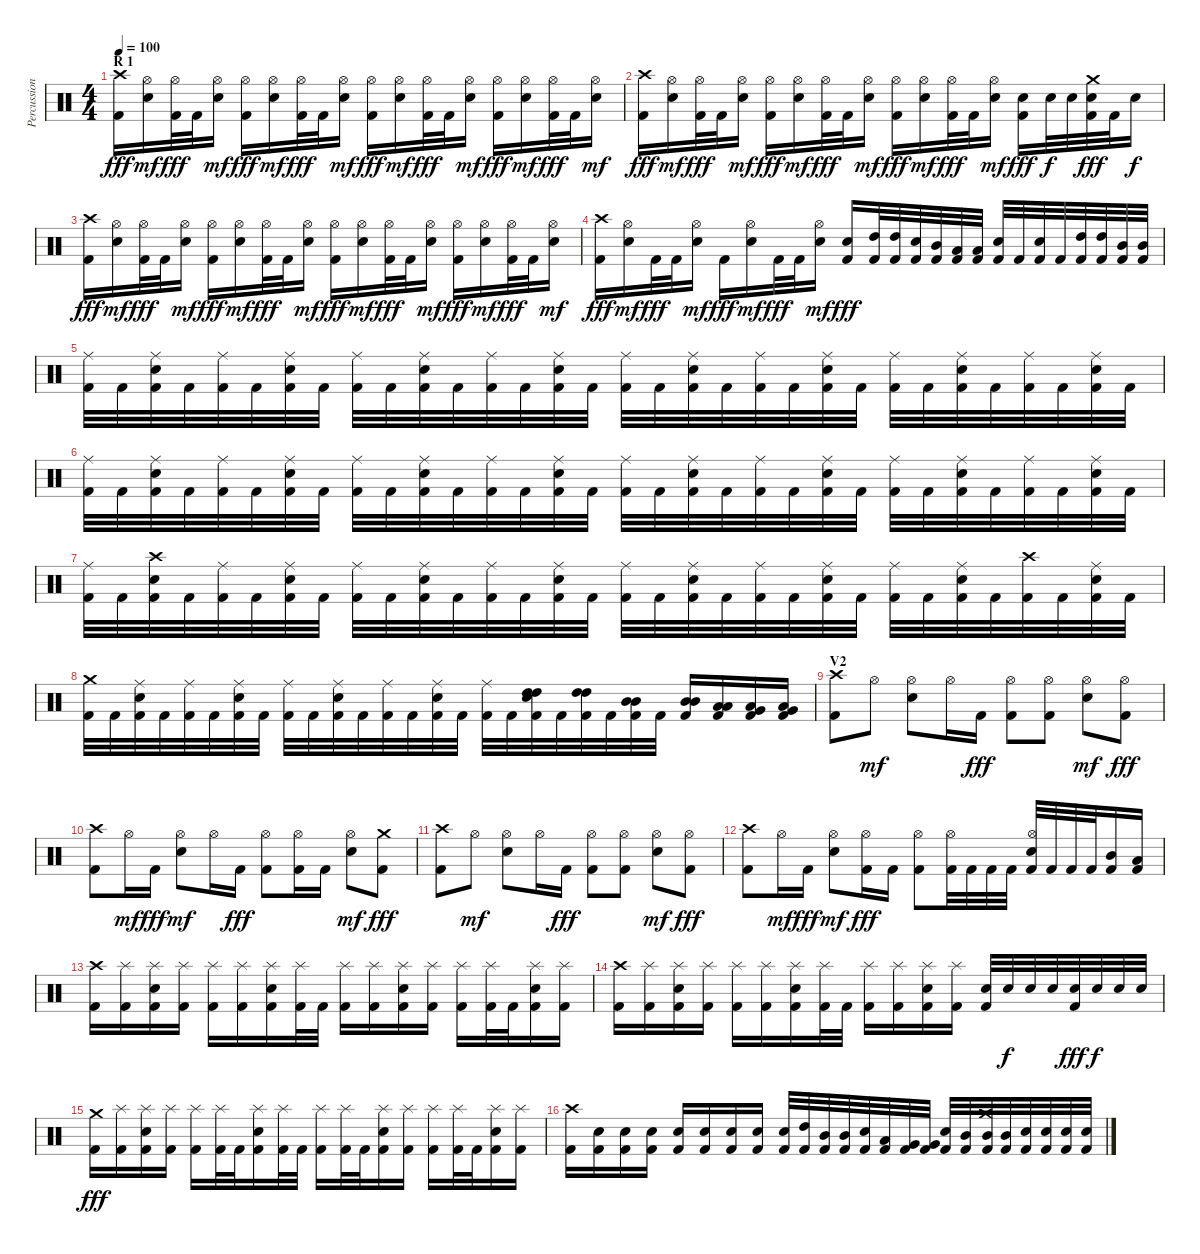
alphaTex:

\track ("Percussion" "Percussion") {instrument percussion}
\staff {score}
\articulation defaults
\ts (4 4)
\section ("" "R 1")
\tempo 100
\clef neutral
\ks c
("Crash high (hit)" "Kick (hit) 2").16{dy fff} ("Hi-Hat (open)" "Snare (hit) 2").16{dy mf} ("Hi-Hat (open)" "Kick (hit) 2").32{dy fff} "Kick (hit) 2".32 ("Hi-Hat (open)" "Snare (hit) 2").16{dy mf} ("Hi-Hat (open)" "Kick (hit) 2").16{dy fff} ("Hi-Hat (open)" "Snare (hit) 2").16{dy mf} ("Hi-Hat (open)" "Kick (hit) 2").32{dy fff} "Kick (hit) 2".32 ("Hi-Hat (open)" "Snare (hit) 2").16{dy mf} ("Hi-Hat (open)" "Kick (hit) 2").16{dy fff} ("Hi-Hat (open)" "Snare (hit) 2").16{dy mf} ("Hi-Hat (open)" "Kick (hit) 2").32{dy fff} "Kick (hit) 2".32 ("Hi-Hat (open)" "Snare (hit) 2").16{dy mf} ("Hi-Hat (open)" "Kick (hit) 2").16{dy fff} ("Hi-Hat (open)" "Snare (hit) 2").16{dy mf} ("Hi-Hat (open)" "Kick (hit) 2").32{dy fff} "Kick (hit) 2".32 ("Hi-Hat (open)" "Snare (hit) 2").16{dy mf} |
("Crash high (hit)" "Kick (hit) 2").16{dy fff} ("Hi-Hat (open)" "Snare (hit) 2").16{dy mf} ("Hi-Hat (open)" "Kick (hit) 2").32{dy fff} "Kick (hit) 2".32 ("Hi-Hat (open)" "Snare (hit) 2").16{dy mf} ("Hi-Hat (open)" "Kick (hit) 2").16{dy fff} ("Hi-Hat (open)" "Snare (hit) 2").16{dy mf} ("Hi-Hat (open)" "Kick (hit) 2").32{dy fff} "Kick (hit) 2".32 ("Hi-Hat (open)" "Snare (hit) 2").16{dy mf} ("Hi-Hat (open)" "Kick (hit) 2").16{dy fff} ("Hi-Hat (open)" "Snare (hit) 2").16{dy mf} ("Hi-Hat (open)" "Kick (hit) 2").32{dy fff} "Kick (hit) 2".32 ("Hi-Hat (open)" "Snare (hit) 2").16{dy mf} ("Snare (hit) 2" "Kick (hit) 2").16{dy fff} "Snare (hit) 2".32{dy f} "Snare (hit) 2".32 ("Crash medium (hit)" "Snare (hit) 2" "Kick (hit) 2").32{dy fff} "Kick (hit) 2".32 "Snare (hit) 2".16{dy f} |
("Crash high (hit)" "Kick (hit) 2").16{dy fff} ("Hi-Hat (open)" "Snare (hit) 2").16{dy mf} ("Hi-Hat (open)" "Kick (hit) 2").32{dy fff} "Kick (hit) 2".32 ("Hi-Hat (open)" "Snare (hit) 2").16{dy mf} ("Hi-Hat (open)" "Kick (hit) 2").16{dy fff} ("Hi-Hat (open)" "Snare (hit) 2").16{dy mf} ("Hi-Hat (open)" "Kick (hit) 2").32{dy fff} "Kick (hit) 2".32 ("Hi-Hat (open)" "Snare (hit) 2").16{dy mf} ("Hi-Hat (open)" "Kick (hit) 2").16{dy fff} ("Hi-Hat (open)" "Snare (hit) 2").16{dy mf} ("Hi-Hat (open)" "Kick (hit) 2").32{dy fff} "Kick (hit) 2".32 ("Hi-Hat (open)" "Snare (hit) 2").16{dy mf} ("Hi-Hat (open)" "Kick (hit) 2").16{dy fff} ("Hi-Hat (open)" "Snare (hit) 2").16{dy mf} ("Hi-Hat (open)" "Kick (hit) 2").32{dy fff} "Kick (hit) 2".32 ("Hi-Hat (open)" "Snare (hit) 2").16{dy mf} |
("Crash high (hit)" "Kick (hit) 2").16{dy fff} ("Hi-Hat (open)" "Snare (hit) 2").16{dy mf} "Kick (hit) 2".32{dy fff} "Kick (hit) 2".32 ("Hi-Hat (open)" "Snare (hit) 2").16{dy mf} "Kick (hit) 2".16{dy fff} ("Hi-Hat (open)" "Snare (hit) 2").16{dy mf} "Kick (hit) 2".32{dy fff} "Kick (hit) 2".32 ("Hi-Hat (open)" "Snare (hit) 2").16{dy mf} ("Snare (hit) 2" "Kick (hit) 2").16{dy fff} ("High Tom (hit)" "Kick (hit) 2").32 ("High Tom (hit)" "Kick (hit) 2").32 ("Snare (hit) 2" "Kick (hit) 2").32 ("Mid Tom (hit)" "Kick (hit) 2").32 ("Low Tom (hit)" "Kick (hit) 2").32 ("Low Tom (hit)" "Kick (hit) 2").32 ("Snare (hit) 2" "Kick (hit) 2").32 "Kick (hit) 2".32 ("Snare (hit) 2" "Kick (hit) 2").32 "Kick (hit) 2".32 ("High Tom (hit)" "Kick (hit) 2").32 ("High Tom (hit)" "Kick (hit) 2").32 ("Mid Tom (hit)" "Kick (hit) 2").32 ("Mid Tom (hit)" "Kick (hit) 2").32 |
("Ride (middle)" "Kick (hit) 2").32 "Kick (hit) 2".32 ("Ride (middle)" "Snare (hit) 2" "Kick (hit) 2").32 "Kick (hit) 2".32 ("Ride (middle)" "Kick (hit) 2").32 "Kick (hit) 2".32 ("Ride (middle)" "Snare (hit) 2" "Kick (hit) 2").32 "Kick (hit) 2".32 ("Ride (middle)" "Kick (hit) 2").32 "Kick (hit) 2".32 ("Ride (middle)" "Snare (hit) 2" "Kick (hit) 2").32 "Kick (hit) 2".32 ("Ride (middle)" "Kick (hit) 2").32 "Kick (hit) 2".32 ("Ride (middle)" "Snare (hit) 2" "Kick (hit) 2").32 "Kick (hit) 2".32 ("Ride (middle)" "Kick (hit) 2").32 "Kick (hit) 2".32 ("Ride (middle)" "Snare (hit) 2" "Kick (hit) 2").32 "Kick (hit) 2".32 ("Ride (middle)" "Kick (hit) 2").32 "Kick (hit) 2".32 ("Ride (middle)" "Snare (hit) 2" "Kick (hit) 2").32 "Kick (hit) 2".32 ("Ride (middle)" "Kick (hit) 2").32 "Kick (hit) 2".32 ("Ride (middle)" "Snare (hit) 2" "Kick (hit) 2").32 "Kick (hit) 2".32 ("Ride (middle)" "Kick (hit) 2").32 "Kick (hit) 2".32 ("Ride (middle)" "Snare (hit) 2" "Kick (hit) 2").32 "Kick (hit) 2".32 |
("Ride (middle)" "Kick (hit) 2").32 "Kick (hit) 2".32 ("Ride (middle)" "Snare (hit) 2" "Kick (hit) 2").32 "Kick (hit) 2".32 ("Ride (middle)" "Kick (hit) 2").32 "Kick (hit) 2".32 ("Ride (middle)" "Snare (hit) 2" "Kick (hit) 2").32 "Kick (hit) 2".32 ("Ride (middle)" "Kick (hit) 2").32 "Kick (hit) 2".32 ("Ride (middle)" "Snare (hit) 2" "Kick (hit) 2").32 "Kick (hit) 2".32 ("Ride (middle)" "Kick (hit) 2").32 "Kick (hit) 2".32 ("Ride (middle)" "Snare (hit) 2" "Kick (hit) 2").32 "Kick (hit) 2".32 ("Ride (middle)" "Kick (hit) 2").32 "Kick (hit) 2".32 ("Ride (middle)" "Snare (hit) 2" "Kick (hit) 2").32 "Kick (hit) 2".32 ("Ride (middle)" "Kick (hit) 2").32 "Kick (hit) 2".32 ("Ride (middle)" "Snare (hit) 2" "Kick (hit) 2").32 "Kick (hit) 2".32 ("Ride (middle)" "Kick (hit) 2").32 "Kick (hit) 2".32 ("Ride (middle)" "Snare (hit) 2" "Kick (hit) 2").32 "Kick (hit) 2".32 ("Ride (middle)" "Kick (hit) 2").32 "Kick (hit) 2".32 ("Ride (middle)" "Snare (hit) 2" "Kick (hit) 2").32 "Kick (hit) 2".32 |
("Ride (middle)" "Kick (hit) 2").32 "Kick (hit) 2".32 ("Crash high (hit)" "Snare (hit) 2" "Kick (hit) 2").32 "Kick (hit) 2".32 ("Ride (middle)" "Kick (hit) 2").32 "Kick (hit) 2".32 ("Ride (middle)" "Snare (hit) 2" "Kick (hit) 2").32 "Kick (hit) 2".32 ("Ride (middle)" "Kick (hit) 2").32 "Kick (hit) 2".32 ("Ride (middle)" "Snare (hit) 2" "Kick (hit) 2").32 "Kick (hit) 2".32 ("Ride (middle)" "Kick (hit) 2").32 "Kick (hit) 2".32 ("Ride (middle)" "Snare (hit) 2" "Kick (hit) 2").32 "Kick (hit) 2".32 ("Ride (middle)" "Kick (hit) 2").32 "Kick (hit) 2".32 ("Ride (middle)" "Snare (hit) 2" "Kick (hit) 2").32 "Kick (hit) 2".32 ("Ride (middle)" "Kick (hit) 2").32 "Kick (hit) 2".32 ("Ride (middle)" "Snare (hit) 2" "Kick (hit) 2").32 "Kick (hit) 2".32 ("Ride (middle)" "Kick (hit) 2").32 "Kick (hit) 2".32 ("Ride (middle)" "Snare (hit) 2" "Kick (hit) 2").32 "Kick (hit) 2".32 ("Crash high (hit)" "Kick (hit) 2").32 "Kick (hit) 2".32 ("Ride (middle)" "Snare (hit) 2" "Kick (hit) 2").32 "Kick (hit) 2".32 |
("Crash medium (hit)" "Kick (hit) 2").32 "Kick (hit) 2".32 ("Ride (middle)" "Snare (hit) 2" "Kick (hit) 2").32 "Kick (hit) 2".32 ("Ride (middle)" "Kick (hit) 2").32 "Kick (hit) 2".32 ("Ride (middle)" "Snare (hit) 2" "Kick (hit) 2").32 "Kick (hit) 2".32 ("Ride (middle)" "Kick (hit) 2").32 "Kick (hit) 2".32 ("Ride (middle)" "Snare (hit) 2" "Kick (hit) 2").32 "Kick (hit) 2".32 ("Ride (middle)" "Kick (hit) 2").32 "Kick (hit) 2".32 ("Ride (middle)" "Snare (hit) 2" "Kick (hit) 2").32 "Kick (hit) 2".32 ("Ride (middle)" "Kick (hit) 2").32 "Kick (hit) 2".32 ("High Tom (hit)" "High Tom (hit)" "Snare (hit) 2" "Kick (hit) 2").32 "Kick (hit) 2".32 ("High Tom (hit)" "High Tom (hit)" "Kick (hit) 2").32 "Kick (hit) 2".32 ("Mid Tom (hit)" "Mid Tom (hit)" "Kick (hit) 2").32 "Kick (hit) 2".32 ("Mid Tom (hit)" "Mid Tom (hit)" "Kick (hit) 2").16 ("Low Tom (hit)" "Low Tom (hit)" "Kick (hit) 2").16 ("Low Tom (hit)" "Very Low Tom (hit)" "Kick (hit) 2").16 ("Low Tom (hit)" "Very Low Tom (hit)" "Kick (hit) 2").16 |
\section ("" "V2")
("Crash high (hit)" "Kick (hit) 2").8 "Hi-Hat (open)".8{dy mf} ("Hi-Hat (open)" "Snare (hit) 2").8 "Hi-Hat (open)".16 "Kick (hit) 2".16{dy fff} ("Hi-Hat (open)" "Kick (hit) 2").8 ("Hi-Hat (open)" "Kick (hit) 2").8 ("Hi-Hat (open)" "Snare (hit) 2").8{dy mf} ("Hi-Hat (open)" "Kick (hit) 2").8{dy fff} |
("Crash high (hit)" "Kick (hit) 2").8 "Hi-Hat (open)".16{dy mf} "Kick (hit) 2".16{dy fff} ("Hi-Hat (open)" "Snare (hit) 2").8{dy mf} "Hi-Hat (open)".16 "Kick (hit) 2".16{dy fff} ("Hi-Hat (open)" "Kick (hit) 2").8 ("Hi-Hat (open)" "Kick (hit) 2").16 "Kick (hit) 2".16 ("Hi-Hat (open)" "Snare (hit) 2").8{dy mf} ("Crash medium (hit)" "Kick (hit) 2").8{dy fff} |
("Crash high (hit)" "Kick (hit) 2").8 "Hi-Hat (open)".8{dy mf} ("Hi-Hat (open)" "Snare (hit) 2").8 "Hi-Hat (open)".16 "Kick (hit) 2".16{dy fff} ("Hi-Hat (open)" "Kick (hit) 2").8 ("Hi-Hat (open)" "Kick (hit) 2").8 ("Hi-Hat (open)" "Snare (hit) 2").8{dy mf} ("Hi-Hat (open)" "Kick (hit) 2").8{dy fff} |
("Crash high (hit)" "Kick (hit) 2").8 "Hi-Hat (open)".16{dy mf} "Kick (hit) 2".16{dy fff} ("Hi-Hat (open)" "Snare (hit) 2").8{dy mf} ("Hi-Hat (open)" "Kick (hit) 2").16{dy fff} "Kick (hit) 2".16 ("Hi-Hat (open)" "Kick (hit) 2").8 ("Hi-Hat (open)" "Kick (hit) 2").32 "Kick (hit) 2".32 "Kick (hit) 2".32 "Kick (hit) 2".32 ("Hi-Hat (open)" "Snare (hit) 2" "Kick (hit) 2").32 "Kick (hit) 2".32 "Kick (hit) 2".32 "Kick (hit) 2".32 ("Mid Tom (hit)" "Kick (hit) 2").16 ("Low Tom (hit)" "Kick (hit) 2").16 |
("Crash high (hit)" "Kick (hit) 2").16 ("Splash (hit)" "Kick (hit) 2").16 ("Splash (hit)" "Snare (hit) 2" "Kick (hit) 2").16 ("Splash (hit)" "Kick (hit) 2").16 ("Splash (hit)" "Kick (hit) 2").16 ("Splash (hit)" "Kick (hit) 2").16 ("Splash (hit)" "Snare (hit) 2" "Kick (hit) 2").16 ("Splash (hit)" "Kick (hit) 2").32 "Kick (hit) 2".32 ("Splash (hit)" "Kick (hit) 2").16 ("Splash (hit)" "Kick (hit) 2").16 ("Splash (hit)" "Snare (hit) 2" "Kick (hit) 2").16 ("Splash (hit)" "Kick (hit) 2").16 ("Splash (hit)" "Kick (hit) 2").16 ("Splash (hit)" "Kick (hit) 2").32 "Kick (hit) 2".32 ("Splash (hit)" "Snare (hit) 2" "Kick (hit) 2").16 ("Splash (hit)" "Kick (hit) 2").16 |
("Crash high (hit)" "Kick (hit) 2").16 ("Splash (hit)" "Kick (hit) 2").16 ("Splash (hit)" "Snare (hit) 2" "Kick (hit) 2").16 ("Splash (hit)" "Kick (hit) 2").16 ("Splash (hit)" "Kick (hit) 2").16 ("Splash (hit)" "Kick (hit) 2").16 ("Splash (hit)" "Snare (hit) 2" "Kick (hit) 2").16 ("Splash (hit)" "Kick (hit) 2").32 "Kick (hit) 2".32 ("Splash (hit)" "Kick (hit) 2").16 ("Splash (hit)" "Kick (hit) 2").16 ("Splash (hit)" "Snare (hit) 2" "Kick (hit) 2").16 ("Splash (hit)" "Kick (hit) 2").16 ("Snare (hit) 2" "Kick (hit) 2").32 "Snare (hit) 2".32{dy f} "Snare (hit) 2".32 "Snare (hit) 2".32 ("Snare (hit) 2" "Kick (hit) 2").32{dy fff} "Snare (hit) 2".32{dy f} "Snare (hit) 2".32 "Snare (hit) 2".32 |
("Crash medium (hit)" "Kick (hit) 2").16{dy fff} ("Splash (hit)" "Kick (hit) 2").16 ("Splash (hit)" "Snare (hit) 2" "Kick (hit) 2").16 ("Splash (hit)" "Kick (hit) 2").16 ("Splash (hit)" "Kick (hit) 2").16 ("Splash (hit)" "Kick (hit) 2").32 "Kick (hit) 2".32 ("Splash (hit)" "Snare (hit) 2" "Kick (hit) 2").16 ("Splash (hit)" "Kick (hit) 2").32 "Kick (hit) 2".32 ("Splash (hit)" "Kick (hit) 2").16 ("Splash (hit)" "Kick (hit) 2").32 "Kick (hit) 2".32 ("Splash (hit)" "Snare (hit) 2" "Kick (hit) 2").16 ("Splash (hit)" "Kick (hit) 2").16 ("Splash (hit)" "Kick (hit) 2").16 ("Splash (hit)" "Kick (hit) 2").32 "Kick (hit) 2".32 ("Splash (hit)" "Snare (hit) 2" "Kick (hit) 2").16 ("Splash (hit)" "Kick (hit) 2").16 |
("Crash high (hit)" "Kick (hit) 2").16 ("Snare (hit) 2" "Kick (hit) 2").16 ("Snare (hit) 2" "Kick (hit) 2").16 ("Snare (hit) 2" "Kick (hit) 2").16 ("Snare (hit) 2" "Kick (hit) 2").16 ("Snare (hit) 2" "Kick (hit) 2").16 ("Snare (hit) 2" "Kick (hit) 2").16 ("Snare (hit) 2" "Kick (hit) 2").16 ("Snare (hit) 2" "Kick (hit) 2").32 ("High Tom (hit)" "Kick (hit) 2").32 ("Mid Tom (hit)" "Kick (hit) 2").32 ("Mid Tom (hit)" "Kick (hit) 2").32 ("Snare (hit) 2" "Kick (hit) 2").32 ("Low Tom (hit)" "Kick (hit) 2").32 ("Very Low Tom (hit)" "Kick (hit) 2").32 ("Very Low Tom (hit)" "Kick (hit) 2").32 ("Snare (hit) 2" "Kick (hit) 2").32 ("Mid Tom (hit)" "Kick (hit) 2").32 ("Crash medium (hit)" "Mid Tom (hit)" "Kick (hit) 2").32 ("Mid Tom (hit)" "Kick (hit) 2").32 ("Snare (hit) 2" "Kick (hit) 2").32 ("Snare (hit) 2" "Kick (hit) 2").32 ("Snare (hit) 2" "Kick (hit) 2").32 ("Snare (hit) 2" "Kick (hit) 2").32
